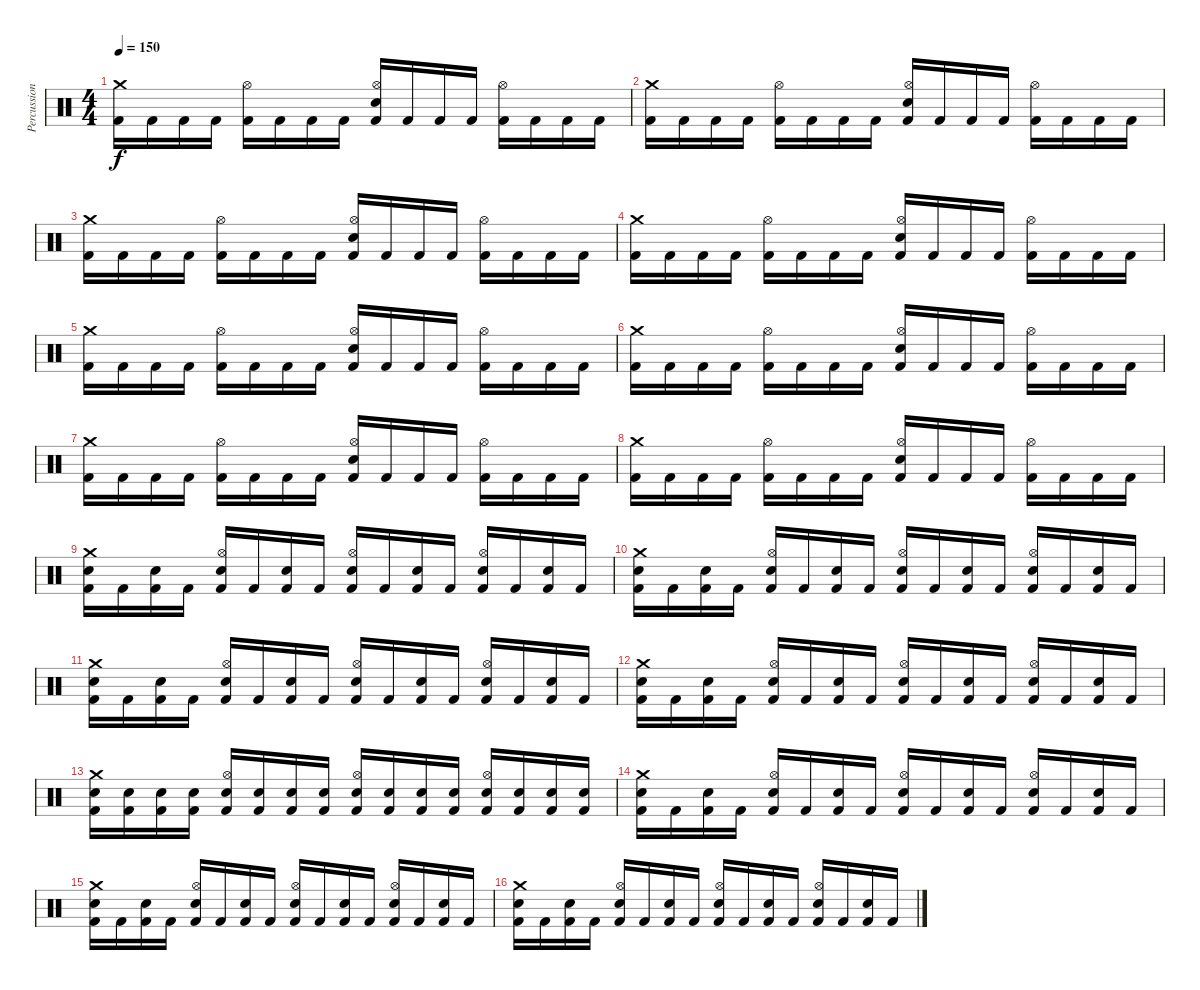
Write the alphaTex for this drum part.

\track ("Percussion" "Percussion") {instrument percussion}
\staff {score}
\articulation defaults
\ts (4 4)
\tempo 150
\clef neutral
\ks c
("Crash medium (hit)" "Kick (hit) 2").16{dy f} "Kick (hit) 2".16 "Kick (hit) 2".16 "Kick (hit) 2".16 ("Hi-Hat (open)" "Kick (hit) 2").16 "Kick (hit) 2".16 "Kick (hit) 2".16 "Kick (hit) 2".16 ("Hi-Hat (open)" "Snare (hit) 2" "Kick (hit) 2").16 "Kick (hit) 2".16 "Kick (hit) 2".16 "Kick (hit) 2".16 ("Hi-Hat (open)" "Kick (hit) 2").16 "Kick (hit) 2".16 "Kick (hit) 2".16 "Kick (hit) 2".16 |
("Crash medium (hit)" "Kick (hit) 2").16 "Kick (hit) 2".16 "Kick (hit) 2".16 "Kick (hit) 2".16 ("Hi-Hat (open)" "Kick (hit) 2").16 "Kick (hit) 2".16 "Kick (hit) 2".16 "Kick (hit) 2".16 ("Hi-Hat (open)" "Snare (hit) 2" "Kick (hit) 2").16 "Kick (hit) 2".16 "Kick (hit) 2".16 "Kick (hit) 2".16 ("Hi-Hat (open)" "Kick (hit) 2").16 "Kick (hit) 2".16 "Kick (hit) 2".16 "Kick (hit) 2".16 |
("Crash medium (hit)" "Kick (hit) 2").16 "Kick (hit) 2".16 "Kick (hit) 2".16 "Kick (hit) 2".16 ("Hi-Hat (open)" "Kick (hit) 2").16 "Kick (hit) 2".16 "Kick (hit) 2".16 "Kick (hit) 2".16 ("Hi-Hat (open)" "Snare (hit) 2" "Kick (hit) 2").16 "Kick (hit) 2".16 "Kick (hit) 2".16 "Kick (hit) 2".16 ("Hi-Hat (open)" "Kick (hit) 2").16 "Kick (hit) 2".16 "Kick (hit) 2".16 "Kick (hit) 2".16 |
("Crash medium (hit)" "Kick (hit) 2").16 "Kick (hit) 2".16 "Kick (hit) 2".16 "Kick (hit) 2".16 ("Hi-Hat (open)" "Kick (hit) 2").16 "Kick (hit) 2".16 "Kick (hit) 2".16 "Kick (hit) 2".16 ("Hi-Hat (open)" "Snare (hit) 2" "Kick (hit) 2").16 "Kick (hit) 2".16 "Kick (hit) 2".16 "Kick (hit) 2".16 ("Hi-Hat (open)" "Kick (hit) 2").16 "Kick (hit) 2".16 "Kick (hit) 2".16 "Kick (hit) 2".16 |
("Crash medium (hit)" "Kick (hit) 2").16 "Kick (hit) 2".16 "Kick (hit) 2".16 "Kick (hit) 2".16 ("Hi-Hat (open)" "Kick (hit) 2").16 "Kick (hit) 2".16 "Kick (hit) 2".16 "Kick (hit) 2".16 ("Hi-Hat (open)" "Snare (hit) 2" "Kick (hit) 2").16 "Kick (hit) 2".16 "Kick (hit) 2".16 "Kick (hit) 2".16 ("Hi-Hat (open)" "Kick (hit) 2").16 "Kick (hit) 2".16 "Kick (hit) 2".16 "Kick (hit) 2".16 |
("Crash medium (hit)" "Kick (hit) 2").16 "Kick (hit) 2".16 "Kick (hit) 2".16 "Kick (hit) 2".16 ("Hi-Hat (open)" "Kick (hit) 2").16 "Kick (hit) 2".16 "Kick (hit) 2".16 "Kick (hit) 2".16 ("Hi-Hat (open)" "Snare (hit) 2" "Kick (hit) 2").16 "Kick (hit) 2".16 "Kick (hit) 2".16 "Kick (hit) 2".16 ("Hi-Hat (open)" "Kick (hit) 2").16 "Kick (hit) 2".16 "Kick (hit) 2".16 "Kick (hit) 2".16 |
("Crash medium (hit)" "Kick (hit) 2").16 "Kick (hit) 2".16 "Kick (hit) 2".16 "Kick (hit) 2".16 ("Hi-Hat (open)" "Kick (hit) 2").16 "Kick (hit) 2".16 "Kick (hit) 2".16 "Kick (hit) 2".16 ("Hi-Hat (open)" "Snare (hit) 2" "Kick (hit) 2").16 "Kick (hit) 2".16 "Kick (hit) 2".16 "Kick (hit) 2".16 ("Hi-Hat (open)" "Kick (hit) 2").16 "Kick (hit) 2".16 "Kick (hit) 2".16 "Kick (hit) 2".16 |
("Crash medium (hit)" "Kick (hit) 2").16 "Kick (hit) 2".16 "Kick (hit) 2".16 "Kick (hit) 2".16 ("Hi-Hat (open)" "Kick (hit) 2").16 "Kick (hit) 2".16 "Kick (hit) 2".16 "Kick (hit) 2".16 ("Hi-Hat (open)" "Snare (hit) 2" "Kick (hit) 2").16 "Kick (hit) 2".16 "Kick (hit) 2".16 "Kick (hit) 2".16 ("Hi-Hat (open)" "Kick (hit) 2").16 "Kick (hit) 2".16 "Kick (hit) 2".16 "Kick (hit) 2".16 |
("Crash medium (hit)" "Snare (hit) 2" "Kick (hit) 2").16 "Kick (hit) 2".16 ("Snare (hit) 2" "Kick (hit) 2").16 "Kick (hit) 2".16 ("Hi-Hat (open)" "Snare (hit) 2" "Kick (hit) 2").16 "Kick (hit) 2".16 ("Snare (hit) 2" "Kick (hit) 2").16 "Kick (hit) 2".16 ("Hi-Hat (open)" "Snare (hit) 2" "Kick (hit) 2").16 "Kick (hit) 2".16 ("Snare (hit) 2" "Kick (hit) 2").16 "Kick (hit) 2".16 ("Hi-Hat (open)" "Snare (hit) 2" "Kick (hit) 2").16 "Kick (hit) 2".16 ("Snare (hit) 2" "Kick (hit) 2").16 "Kick (hit) 2".16 |
("Crash medium (hit)" "Snare (hit) 2" "Kick (hit) 2").16 "Kick (hit) 2".16 ("Snare (hit) 2" "Kick (hit) 2").16 "Kick (hit) 2".16 ("Hi-Hat (open)" "Snare (hit) 2" "Kick (hit) 2").16 "Kick (hit) 2".16 ("Snare (hit) 2" "Kick (hit) 2").16 "Kick (hit) 2".16 ("Hi-Hat (open)" "Snare (hit) 2" "Kick (hit) 2").16 "Kick (hit) 2".16 ("Snare (hit) 2" "Kick (hit) 2").16 "Kick (hit) 2".16 ("Hi-Hat (open)" "Snare (hit) 2" "Kick (hit) 2").16 "Kick (hit) 2".16 ("Snare (hit) 2" "Kick (hit) 2").16 "Kick (hit) 2".16 |
("Crash medium (hit)" "Snare (hit) 2" "Kick (hit) 2").16 "Kick (hit) 2".16 ("Snare (hit) 2" "Kick (hit) 2").16 "Kick (hit) 2".16 ("Hi-Hat (open)" "Snare (hit) 2" "Kick (hit) 2").16 "Kick (hit) 2".16 ("Snare (hit) 2" "Kick (hit) 2").16 "Kick (hit) 2".16 ("Hi-Hat (open)" "Snare (hit) 2" "Kick (hit) 2").16 "Kick (hit) 2".16 ("Snare (hit) 2" "Kick (hit) 2").16 "Kick (hit) 2".16 ("Hi-Hat (open)" "Snare (hit) 2" "Kick (hit) 2").16 "Kick (hit) 2".16 ("Snare (hit) 2" "Kick (hit) 2").16 "Kick (hit) 2".16 |
("Crash medium (hit)" "Snare (hit) 2" "Kick (hit) 2").16 "Kick (hit) 2".16 ("Snare (hit) 2" "Kick (hit) 2").16 "Kick (hit) 2".16 ("Hi-Hat (open)" "Snare (hit) 2" "Kick (hit) 2").16 "Kick (hit) 2".16 ("Snare (hit) 2" "Kick (hit) 2").16 "Kick (hit) 2".16 ("Hi-Hat (open)" "Snare (hit) 2" "Kick (hit) 2").16 "Kick (hit) 2".16 ("Snare (hit) 2" "Kick (hit) 2").16 "Kick (hit) 2".16 ("Hi-Hat (open)" "Snare (hit) 2" "Kick (hit) 2").16 "Kick (hit) 2".16 ("Snare (hit) 2" "Kick (hit) 2").16 "Kick (hit) 2".16 |
("Crash medium (hit)" "Snare (hit) 2" "Kick (hit) 2").16 ("Snare (hit) 2" "Kick (hit) 2").16 ("Snare (hit) 2" "Kick (hit) 2").16 ("Snare (hit) 2" "Kick (hit) 2").16 ("Hi-Hat (open)" "Snare (hit) 2" "Kick (hit) 2").16 ("Snare (hit) 2" "Kick (hit) 2").16 ("Snare (hit) 2" "Kick (hit) 2").16 ("Snare (hit) 2" "Kick (hit) 2").16 ("Hi-Hat (open)" "Snare (hit) 2" "Kick (hit) 2").16 ("Snare (hit) 2" "Kick (hit) 2").16 ("Snare (hit) 2" "Kick (hit) 2").16 ("Snare (hit) 2" "Kick (hit) 2").16 ("Hi-Hat (open)" "Snare (hit) 2" "Kick (hit) 2").16 ("Snare (hit) 2" "Kick (hit) 2").16 ("Snare (hit) 2" "Kick (hit) 2").16 ("Snare (hit) 2" "Kick (hit) 2").16 |
("Crash medium (hit)" "Snare (hit) 2" "Kick (hit) 2").16 "Kick (hit) 2".16 ("Snare (hit) 2" "Kick (hit) 2").16 "Kick (hit) 2".16 ("Hi-Hat (open)" "Snare (hit) 2" "Kick (hit) 2").16 "Kick (hit) 2".16 ("Snare (hit) 2" "Kick (hit) 2").16 "Kick (hit) 2".16 ("Hi-Hat (open)" "Snare (hit) 2" "Kick (hit) 2").16 "Kick (hit) 2".16 ("Snare (hit) 2" "Kick (hit) 2").16 "Kick (hit) 2".16 ("Hi-Hat (open)" "Snare (hit) 2" "Kick (hit) 2").16 "Kick (hit) 2".16 ("Snare (hit) 2" "Kick (hit) 2").16 "Kick (hit) 2".16 |
("Crash medium (hit)" "Snare (hit) 2" "Kick (hit) 2").16 "Kick (hit) 2".16 ("Snare (hit) 2" "Kick (hit) 2").16 "Kick (hit) 2".16 ("Hi-Hat (open)" "Snare (hit) 2" "Kick (hit) 2").16 "Kick (hit) 2".16 ("Snare (hit) 2" "Kick (hit) 2").16 "Kick (hit) 2".16 ("Hi-Hat (open)" "Snare (hit) 2" "Kick (hit) 2").16 "Kick (hit) 2".16 ("Snare (hit) 2" "Kick (hit) 2").16 "Kick (hit) 2".16 ("Hi-Hat (open)" "Snare (hit) 2" "Kick (hit) 2").16 "Kick (hit) 2".16 ("Snare (hit) 2" "Kick (hit) 2").16 "Kick (hit) 2".16 |
("Crash medium (hit)" "Snare (hit) 2" "Kick (hit) 2").16 "Kick (hit) 2".16 ("Snare (hit) 2" "Kick (hit) 2").16 "Kick (hit) 2".16 ("Hi-Hat (open)" "Snare (hit) 2" "Kick (hit) 2").16 "Kick (hit) 2".16 ("Snare (hit) 2" "Kick (hit) 2").16 "Kick (hit) 2".16 ("Hi-Hat (open)" "Snare (hit) 2" "Kick (hit) 2").16 "Kick (hit) 2".16 ("Snare (hit) 2" "Kick (hit) 2").16 "Kick (hit) 2".16 ("Hi-Hat (open)" "Snare (hit) 2" "Kick (hit) 2").16 "Kick (hit) 2".16 ("Snare (hit) 2" "Kick (hit) 2").16 "Kick (hit) 2".16
